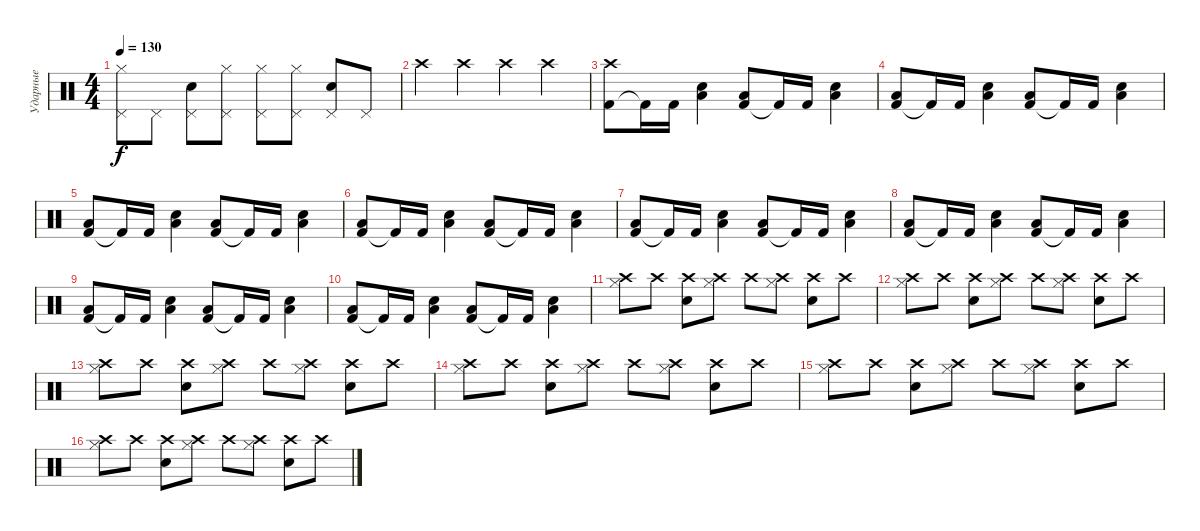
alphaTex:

\track ("Ударные" "Ударные") {instrument percussion}
\staff {score}
\articulation defaults
\ts (4 4)
\tempo 130
\clef neutral
\ks c
("Pedal Hi-Hat (hit)" "Hi-Hat (closed)").8{dy f} "Pedal Hi-Hat (hit)".8 ("Pedal Hi-Hat (hit)" "Snare (hit) 2").8 ("Pedal Hi-Hat (hit)" "Hi-Hat (closed)").8 ("Pedal Hi-Hat (hit)" "Hi-Hat (closed)").8 ("Pedal Hi-Hat (hit)" "Hi-Hat (closed)").8 ("Pedal Hi-Hat (hit)" "Snare (hit) 2").8 "Pedal Hi-Hat (hit)".8 |
"Crash high (hit)".4 "Crash high (hit)".4 "Crash high (hit)".4 "Crash high (hit)".4 |
("Kick (hit) 2" "Crash high (hit)").8 "Kick (hit) 2"{t}.16 "Kick (hit) 2".16 ("Snare (hit) 2" "Low Floor Tom (hit)").4 ("Kick (hit) 2" "Low Floor Tom (hit)").8 "Kick (hit) 2"{t}.16 "Kick (hit) 2".16 ("Snare (hit) 2" "Low Floor Tom (hit)").4 |
("Kick (hit) 2" "Low Floor Tom (hit)").8 "Kick (hit) 2"{t}.16 "Kick (hit) 2".16 ("Snare (hit) 2" "Low Floor Tom (hit)").4 ("Kick (hit) 2" "Low Floor Tom (hit)").8 "Kick (hit) 2"{t}.16 "Kick (hit) 2".16 ("Snare (hit) 2" "Low Floor Tom (hit)").4 |
("Kick (hit) 2" "Low Floor Tom (hit)").8 "Kick (hit) 2"{t}.16 "Kick (hit) 2".16 ("Snare (hit) 2" "Low Floor Tom (hit)").4 ("Kick (hit) 2" "Low Floor Tom (hit)").8 "Kick (hit) 2"{t}.16 "Kick (hit) 2".16 ("Snare (hit) 2" "Low Floor Tom (hit)").4 |
("Kick (hit) 2" "Low Floor Tom (hit)").8 "Kick (hit) 2"{t}.16 "Kick (hit) 2".16 ("Snare (hit) 2" "Low Floor Tom (hit)").4 ("Kick (hit) 2" "Low Floor Tom (hit)").8 "Kick (hit) 2"{t}.16 "Kick (hit) 2".16 ("Snare (hit) 2" "Low Floor Tom (hit)").4 |
("Kick (hit) 2" "Low Floor Tom (hit)").8 "Kick (hit) 2"{t}.16 "Kick (hit) 2".16 ("Snare (hit) 2" "Low Floor Tom (hit)").4 ("Kick (hit) 2" "Low Floor Tom (hit)").8 "Kick (hit) 2"{t}.16 "Kick (hit) 2".16 ("Snare (hit) 2" "Low Floor Tom (hit)").4 |
("Kick (hit) 2" "Low Floor Tom (hit)").8 "Kick (hit) 2"{t}.16 "Kick (hit) 2".16 ("Snare (hit) 2" "Low Floor Tom (hit)").4 ("Kick (hit) 2" "Low Floor Tom (hit)").8 "Kick (hit) 2"{t}.16 "Kick (hit) 2".16 ("Snare (hit) 2" "Low Floor Tom (hit)").4 |
("Kick (hit) 2" "Low Floor Tom (hit)").8 "Kick (hit) 2"{t}.16 "Kick (hit) 2".16 ("Snare (hit) 2" "Low Floor Tom (hit)").4 ("Kick (hit) 2" "Low Floor Tom (hit)").8 "Kick (hit) 2"{t}.16 "Kick (hit) 2".16 ("Snare (hit) 2" "Low Floor Tom (hit)").4 |
("Kick (hit) 2" "Low Floor Tom (hit)").8 "Kick (hit) 2"{t}.16 "Kick (hit) 2".16 ("Snare (hit) 2" "Low Floor Tom (hit)").4 ("Kick (hit) 2" "Low Floor Tom (hit)").8 "Kick (hit) 2"{t}.16 "Kick (hit) 2".16 ("Snare (hit) 2" "Low Floor Tom (hit)").4 |
("Hi-Hat (closed)" "Crash high (hit)").8 "Crash high (hit)".8 ("Snare (hit) 2" "Crash high (hit)").8 ("Hi-Hat (closed)" "Crash high (hit)").8 "Crash high (hit)".8 ("Hi-Hat (closed)" "Crash high (hit)").8 ("Snare (hit) 2" "Crash high (hit)").8 "Crash high (hit)".8 |
("Hi-Hat (closed)" "Crash high (hit)").8 "Crash high (hit)".8 ("Snare (hit) 2" "Crash high (hit)").8 ("Hi-Hat (closed)" "Crash high (hit)").8 "Crash high (hit)".8 ("Hi-Hat (closed)" "Crash high (hit)").8 ("Snare (hit) 2" "Crash high (hit)").8 "Crash high (hit)".8 |
("Hi-Hat (closed)" "Crash high (hit)").8 "Crash high (hit)".8 ("Snare (hit) 2" "Crash high (hit)").8 ("Hi-Hat (closed)" "Crash high (hit)").8 "Crash high (hit)".8 ("Hi-Hat (closed)" "Crash high (hit)").8 ("Snare (hit) 2" "Crash high (hit)").8 "Crash high (hit)".8 |
("Hi-Hat (closed)" "Crash high (hit)").8 "Crash high (hit)".8 ("Snare (hit) 2" "Crash high (hit)").8 ("Hi-Hat (closed)" "Crash high (hit)").8 "Crash high (hit)".8 ("Hi-Hat (closed)" "Crash high (hit)").8 ("Snare (hit) 2" "Crash high (hit)").8 "Crash high (hit)".8 |
("Hi-Hat (closed)" "Crash high (hit)").8 "Crash high (hit)".8 ("Snare (hit) 2" "Crash high (hit)").8 ("Hi-Hat (closed)" "Crash high (hit)").8 "Crash high (hit)".8 ("Hi-Hat (closed)" "Crash high (hit)").8 ("Snare (hit) 2" "Crash high (hit)").8 "Crash high (hit)".8 |
("Hi-Hat (closed)" "Crash high (hit)").8 "Crash high (hit)".8 ("Snare (hit) 2" "Crash high (hit)").8 ("Hi-Hat (closed)" "Crash high (hit)").8 "Crash high (hit)".8 ("Hi-Hat (closed)" "Crash high (hit)").8 ("Snare (hit) 2" "Crash high (hit)").8 "Crash high (hit)".8
